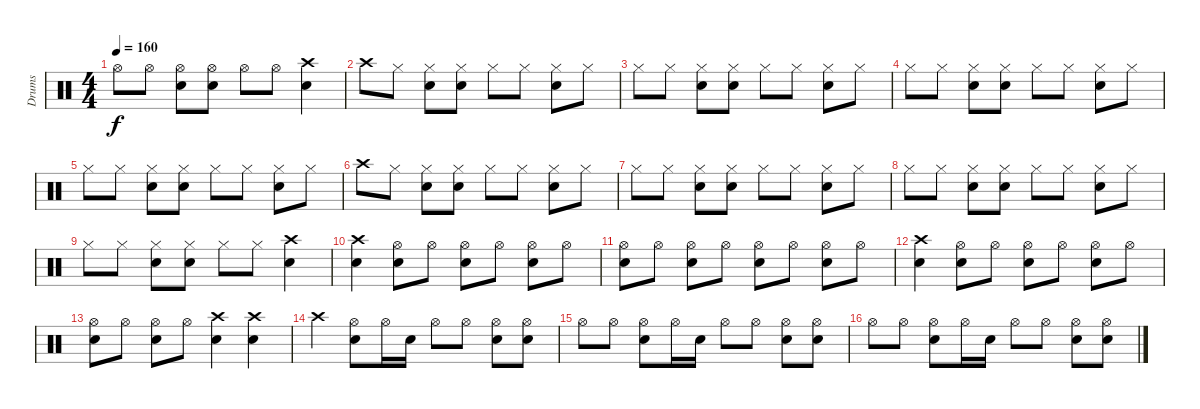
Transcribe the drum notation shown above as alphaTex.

\track ("Drums" "Drums") {instrument percussion}
\staff {score}
\articulation defaults
\ts (4 4)
\tempo 160
\clef neutral
\ks c "Hi-Hat (open)".8{dy f} "Hi-Hat (open)".8
("Hi-Hat (open)" "Snare (hit) 2").8 ("Hi-Hat (open)" "Snare (hit) 2").8 "Hi-Hat (open)".8 "Hi-Hat (open)".8 ("Crash high (hit)" "Snare (hit) 2").4 |
"Crash high (hit)".8 "Hi-Hat (closed)".8 ("Hi-Hat (closed)" "Snare (hit) 2").8 ("Hi-Hat (closed)" "Snare (hit) 2").8 "Hi-Hat (closed)".8 "Hi-Hat (closed)".8 ("Hi-Hat (closed)" "Snare (hit) 2").8 "Hi-Hat (closed)".8 |
"Hi-Hat (closed)".8 "Hi-Hat (closed)".8 ("Hi-Hat (closed)" "Snare (hit) 2").8 ("Hi-Hat (closed)" "Snare (hit) 2").8 "Hi-Hat (closed)".8 "Hi-Hat (closed)".8 ("Hi-Hat (closed)" "Snare (hit) 2").8 "Hi-Hat (closed)".8 |
"Hi-Hat (closed)".8 "Hi-Hat (closed)".8 ("Hi-Hat (closed)" "Snare (hit) 2").8 ("Hi-Hat (closed)" "Snare (hit) 2").8 "Hi-Hat (closed)".8 "Hi-Hat (closed)".8 ("Hi-Hat (closed)" "Snare (hit) 2").8 "Hi-Hat (closed)".8 |
"Hi-Hat (closed)".8 "Hi-Hat (closed)".8 ("Hi-Hat (closed)" "Snare (hit) 2").8 ("Hi-Hat (closed)" "Snare (hit) 2").8 "Hi-Hat (closed)".8 "Hi-Hat (closed)".8 ("Hi-Hat (closed)" "Snare (hit) 2").8 "Hi-Hat (closed)".8 |
"Crash high (hit)".8 "Hi-Hat (closed)".8 ("Hi-Hat (closed)" "Snare (hit) 2").8 ("Hi-Hat (closed)" "Snare (hit) 2").8 "Hi-Hat (closed)".8 "Hi-Hat (closed)".8 ("Hi-Hat (closed)" "Snare (hit) 2").8 "Hi-Hat (closed)".8 |
"Hi-Hat (closed)".8 "Hi-Hat (closed)".8 ("Hi-Hat (closed)" "Snare (hit) 2").8 ("Hi-Hat (closed)" "Snare (hit) 2").8 "Hi-Hat (closed)".8 "Hi-Hat (closed)".8 ("Hi-Hat (closed)" "Snare (hit) 2").8 "Hi-Hat (closed)".8 |
"Hi-Hat (closed)".8 "Hi-Hat (closed)".8 ("Hi-Hat (closed)" "Snare (hit) 2").8 ("Hi-Hat (closed)" "Snare (hit) 2").8 "Hi-Hat (closed)".8 "Hi-Hat (closed)".8 ("Hi-Hat (closed)" "Snare (hit) 2").8 "Hi-Hat (closed)".8 |
"Hi-Hat (closed)".8 "Hi-Hat (closed)".8 ("Hi-Hat (closed)" "Snare (hit) 2").8 ("Hi-Hat (closed)" "Snare (hit) 2").8 "Hi-Hat (closed)".8 "Hi-Hat (closed)".8 ("Crash high (hit)" "Snare (hit) 2").4 |
("Crash high (hit)" "Snare (hit) 2").4 ("Hi-Hat (open)" "Snare (hit) 2").8 "Hi-Hat (open)".8 ("Hi-Hat (open)" "Snare (hit) 2").8 "Hi-Hat (open)".8 ("Hi-Hat (open)" "Snare (hit) 2").8 "Hi-Hat (open)".8 |
("Hi-Hat (open)" "Snare (hit) 2").8 "Hi-Hat (open)".8 ("Hi-Hat (open)" "Snare (hit) 2").8 "Hi-Hat (open)".8 ("Hi-Hat (open)" "Snare (hit) 2").8 "Hi-Hat (open)".8 ("Hi-Hat (open)" "Snare (hit) 2").8 "Hi-Hat (open)".8 |
("Crash high (hit)" "Snare (hit) 2").4 ("Hi-Hat (open)" "Snare (hit) 2").8 "Hi-Hat (open)".8 ("Hi-Hat (open)" "Snare (hit) 2").8 "Hi-Hat (open)".8 ("Hi-Hat (open)" "Snare (hit) 2").8 "Hi-Hat (open)".8 |
("Hi-Hat (open)" "Snare (hit) 2").8 "Hi-Hat (open)".8 ("Hi-Hat (open)" "Snare (hit) 2").8 "Hi-Hat (open)".8 ("Crash high (hit)" "Snare (hit) 2").4 ("Crash high (hit)" "Snare (hit) 2").4 |
"Crash high (hit)".4 ("Hi-Hat (open)" "Snare (hit) 2").8 "Hi-Hat (open)".16 "Snare (hit) 2".16 "Hi-Hat (open)".8 "Hi-Hat (open)".8 ("Hi-Hat (open)" "Snare (hit) 2").8 ("Hi-Hat (open)" "Snare (hit) 2").8 |
"Hi-Hat (open)".8 "Hi-Hat (open)".8 ("Hi-Hat (open)" "Snare (hit) 2").8 "Hi-Hat (open)".16 "Snare (hit) 2".16 "Hi-Hat (open)".8 "Hi-Hat (open)".8 ("Hi-Hat (open)" "Snare (hit) 2").8 ("Hi-Hat (open)" "Snare (hit) 2").8 |
"Hi-Hat (open)".8 "Hi-Hat (open)".8 ("Hi-Hat (open)" "Snare (hit) 2").8 "Hi-Hat (open)".16 "Snare (hit) 2".16 "Hi-Hat (open)".8 "Hi-Hat (open)".8 ("Hi-Hat (open)" "Snare (hit) 2").8 ("Hi-Hat (open)" "Snare (hit) 2").8
